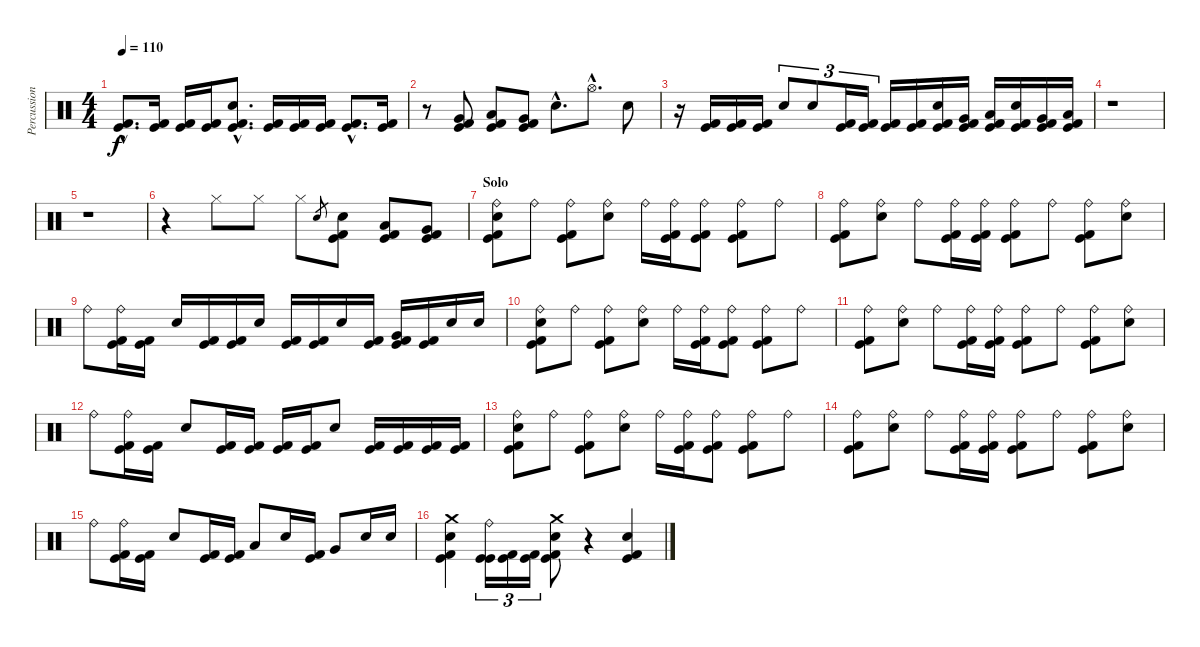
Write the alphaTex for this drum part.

\track ("Percussion" "Percussion") {instrument percussion}
\staff {score}
\articulation defaults
\ts (4 4)
\tempo 110
\clef neutral
\ks c
("Kick (hit)"{hac} "Kick (hit) 2"{hac}).8{d dy f} ("Kick (hit)" "Kick (hit) 2").16 ("Kick (hit)" "Kick (hit) 2").16 ("Kick (hit)" "Kick (hit) 2").16 ("Electric Snare (hit)"{hac} "Kick (hit)"{hac} "Kick (hit) 2"{hac}).8{d} ("Kick (hit)" "Kick (hit) 2").16 ("Kick (hit)" "Kick (hit) 2").16 ("Kick (hit)" "Kick (hit) 2").16 ("Kick (hit)"{hac} "Kick (hit) 2"{hac}).8{d} ("Kick (hit)" "Kick (hit) 2").16 |
r.8 ("Very Low Tom (hit)" "Kick (hit) 2" "Kick (hit)").8 ("Low Tom (hit)" "Kick (hit) 2" "Kick (hit)").8 ("Very Low Tom (hit)" "Kick (hit) 2" "Kick (hit)").8 "Electric Snare (hit)"{hac}.8{d} "Hi-Hat (open)"{hac}.8{d} "Electric Snare (hit)".8 |
r.16 ("Kick (hit) 2" "Kick (hit)").16 ("Kick (hit) 2" "Kick (hit)").16 ("Kick (hit) 2" "Kick (hit)").16 "Electric Snare (hit)".8{tu (3 2)} "Electric Snare (hit)".8{tu (3 2)} ("Kick (hit) 2" "Kick (hit)").16{tu (3 2)} ("Kick (hit) 2" "Kick (hit)").16{tu (3 2)} ("Kick (hit) 2" "Kick (hit)").16 ("Kick (hit) 2" "Kick (hit)").16 ("Electric Snare (hit)" "Kick (hit) 2" "Kick (hit)").16 ("Very Low Tom (hit)" "Kick (hit) 2" "Kick (hit)").16 ("Low Floor Tom (hit)" "Kick (hit) 2" "Kick (hit)").16 ("Electric Snare (hit)" "Kick (hit) 2" "Kick (hit)").16 ("Very Low Tom (hit)" "Kick (hit) 2" "Kick (hit)").16 ("Low Floor Tom (hit)" "Kick (hit) 2" "Kick (hit)").16 |
r.1 |
r.1 |
r.4 "Hi-Hat (closed)".8 "Hi-Hat (closed)".8 "Hi-Hat (closed)".8 "Electric Snare (hit)".8{gr} ("Electric Snare (hit)" "Kick (hit) 2" "Kick (hit)").8 ("Low Tom (hit)" "Kick (hit) 2" "Kick (hit)").8 ("Very Low Tom (hit)" "Kick (hit) 2" "Kick (hit)").8 |
\section ("" "Solo")
("Ride (bell)" "Electric Snare (hit)" "Kick (hit) 2" "Kick (hit)").8 "Ride (bell)".8 ("Ride (bell)" "Kick (hit) 2" "Kick (hit)").8 ("Ride (bell)" "Electric Snare (hit)").8 "Ride (bell)".16 ("Ride (bell)" "Kick (hit) 2" "Kick (hit)").16 ("Ride (bell)" "Kick (hit) 2" "Kick (hit)").8 ("Ride (bell)" "Kick (hit)" "Kick (hit) 2").8 "Ride (bell)".8 |
("Ride (bell)" "Kick (hit) 2" "Kick (hit)").8 ("Ride (bell)" "Electric Snare (hit)").8 "Ride (bell)".8 ("Ride (bell)" "Kick (hit) 2" "Kick (hit)").16 ("Ride (bell)" "Kick (hit) 2" "Kick (hit)").16 ("Ride (bell)" "Kick (hit) 2" "Kick (hit)").8 "Ride (bell)".8 ("Ride (bell)" "Kick (hit) 2" "Kick (hit)").8 ("Ride (bell)" "Electric Snare (hit)").8 |
"Ride (bell)".8 ("Ride (bell)" "Kick (hit) 2" "Kick (hit)").16 ("Kick (hit) 2" "Kick (hit)").16 "Electric Snare (hit)".16 ("Kick (hit) 2" "Kick (hit)").16 ("Kick (hit) 2" "Kick (hit)").16 "Electric Snare (hit)".16 ("Kick (hit) 2" "Kick (hit)").16 ("Kick (hit) 2" "Kick (hit)").16 "Electric Snare (hit)".16 ("Kick (hit) 2" "Kick (hit)").16 ("Very Low Tom (hit)" "Kick (hit) 2" "Kick (hit)").16 ("Kick (hit) 2" "Kick (hit)").16 "Electric Snare (hit)".16 "Electric Snare (hit)".16 |
("Ride (bell)" "Electric Snare (hit)" "Kick (hit) 2" "Kick (hit)").8 "Ride (bell)".8 ("Ride (bell)" "Kick (hit) 2" "Kick (hit)").8 ("Ride (bell)" "Electric Snare (hit)").8 "Ride (bell)".16 ("Ride (bell)" "Kick (hit) 2" "Kick (hit)").16 ("Ride (bell)" "Kick (hit) 2" "Kick (hit)").8 ("Ride (bell)" "Kick (hit)" "Kick (hit) 2").8 "Ride (bell)".8 |
("Ride (bell)" "Kick (hit) 2" "Kick (hit)").8 ("Ride (bell)" "Electric Snare (hit)").8 "Ride (bell)".8 ("Ride (bell)" "Kick (hit) 2" "Kick (hit)").16 ("Ride (bell)" "Kick (hit) 2" "Kick (hit)").16 ("Ride (bell)" "Kick (hit) 2" "Kick (hit)").8 "Ride (bell)".8 ("Ride (bell)" "Kick (hit) 2" "Kick (hit)").8 ("Ride (bell)" "Electric Snare (hit)").8 |
"Ride (bell)".8 ("Ride (bell)" "Kick (hit) 2" "Kick (hit)").16 ("Kick (hit)" "Kick (hit) 2").16 "Electric Snare (hit)".8 ("Kick (hit) 2" "Kick (hit)").16 ("Kick (hit) 2" "Kick (hit)").16 ("Kick (hit) 2" "Kick (hit)").16 ("Kick (hit) 2" "Kick (hit)").16 "Electric Snare (hit)".8 ("Kick (hit) 2" "Kick (hit)").16 ("Kick (hit) 2" "Kick (hit)").16 ("Kick (hit) 2" "Kick (hit)").16 ("Kick (hit) 2" "Kick (hit)").16 |
("Ride (bell)" "Electric Snare (hit)" "Kick (hit) 2" "Kick (hit)").8 "Ride (bell)".8 ("Ride (bell)" "Kick (hit) 2" "Kick (hit)").8 ("Ride (bell)" "Electric Snare (hit)").8 "Ride (bell)".16 ("Ride (bell)" "Kick (hit) 2" "Kick (hit)").16 ("Ride (bell)" "Kick (hit) 2" "Kick (hit)").8 ("Ride (bell)" "Kick (hit)" "Kick (hit) 2").8 "Ride (bell)".8 |
("Ride (bell)" "Kick (hit) 2" "Kick (hit)").8 ("Ride (bell)" "Electric Snare (hit)").8 "Ride (bell)".8 ("Ride (bell)" "Kick (hit) 2" "Kick (hit)").16 ("Ride (bell)" "Kick (hit) 2" "Kick (hit)").16 ("Ride (bell)" "Kick (hit) 2" "Kick (hit)").8 "Ride (bell)".8 ("Ride (bell)" "Kick (hit) 2" "Kick (hit)").8 ("Ride (bell)" "Electric Snare (hit)").8 |
"Ride (bell)".8 ("Ride (bell)" "Kick (hit) 2" "Kick (hit)").16 ("Kick (hit) 2" "Kick (hit)").16 "Electric Snare (hit)".8 ("Kick (hit) 2" "Kick (hit)").16 ("Kick (hit) 2" "Kick (hit)").16 "Low Tom (hit)".8 "Electric Snare (hit)".16 ("Kick (hit) 2" "Kick (hit)").16 "Very Low Tom (hit)".8 "Electric Snare (hit)".16 "Electric Snare (hit)".16 |
("Crash medium (hit)" "Electric Snare (hit)" "Kick (hit) 2" "Kick (hit)").4 ("Ride (bell)" "Kick (hit)" "Kick (hit)").16{tu (3 2)} ("Kick (hit)" "Kick (hit) 2").16{tu (3 2)} ("Kick (hit)" "Kick (hit) 2").16{tu (3 2)} ("Crash medium (hit)" "Electric Snare (hit)" "Kick (hit) 2" "Kick (hit)").8 r.4 ("Electric Snare (hit)" "Kick (hit) 2" "Kick (hit)").4
